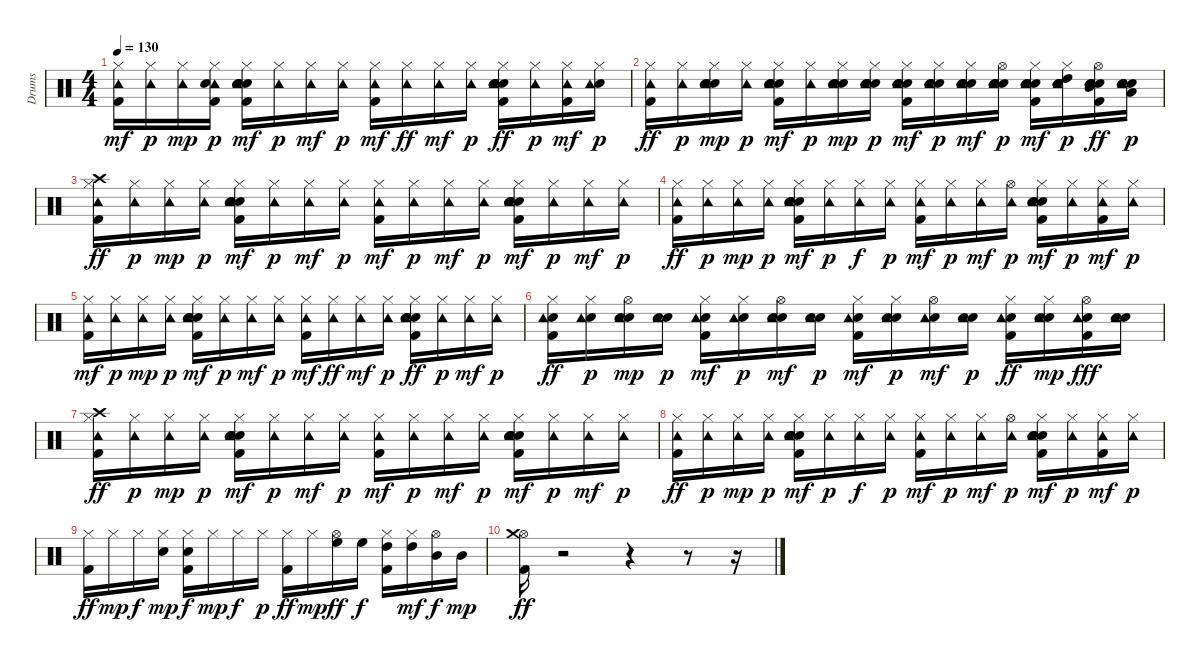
\track ("Drums  " "Drums  ") {instrument percussion}
\staff {score}
\articulation defaults
\ts (4 4)
\tempo 130
\clef neutral
\ks c
("Kick (hit) 2" "Hi-Hat (closed)" "Tambourine (hit)").16{dy mf} ("Hi-Hat (closed)" "Tambourine (hit)").16{dy p} ("Hi-Hat (closed)" "Tambourine (hit)").16{dy mp} ("Kick (hit) 2" "Hi-Hat (closed)" "Tambourine (hit)" "Snare (hit) 2").16{dy p} ("Kick (hit) 2" "Snare (hit) 2" "Snare (hit) 2" "Electric Snare (hit)" "Hi-Hat (closed)" "Tambourine (hit)").16{dy mf} ("Hi-Hat (closed)" "Tambourine (hit)").16{dy p} ("Hi-Hat (closed)" "Tambourine (hit)").16{dy mf} ("Hi-Hat (closed)" "Tambourine (hit)").16{dy p} ("Kick (hit) 2" "Hi-Hat (closed)" "Tambourine (hit)").16{dy mf} ("Hi-Hat (closed)" "Tambourine (hit)").16{dy ff} ("Hi-Hat (closed)" "Tambourine (hit)").16{dy mf} ("Hi-Hat (closed)" "Tambourine (hit)").16{dy p} ("Kick (hit) 2" "Snare (hit) 2" "Snare (hit) 2" "Electric Snare (hit)" "Hi-Hat (closed)" "Tambourine (hit)").16{dy ff} ("Hi-Hat (closed)" "Tambourine (hit)").16{dy p} ("Kick (hit) 2" "Hi-Hat (closed)" "Tambourine (hit)").16{dy mf} ("Snare (hit) 2" "Hi-Hat (closed)" "Tambourine (hit)").16{dy p} |
("Kick (hit) 2" "Hi-Hat (closed)" "Tambourine (hit)").16{dy ff} ("Hi-Hat (closed)" "Tambourine (hit)").16{dy p} ("Snare (hit) 2" "Snare (hit) 2" "Electric Snare (hit)" "Hi-Hat (closed)" "Tambourine (hit)").16{dy mp} ("Hi-Hat (closed)" "Tambourine (hit)").16{dy p} ("Kick (hit) 2" "Snare (hit) 2" "Snare (hit) 2" "Electric Snare (hit)" "Hi-Hat (closed)" "Tambourine (hit)").16{dy mf} ("Hi-Hat (closed)" "Tambourine (hit)").16{dy p} ("Snare (hit) 2" "Snare (hit) 2" "Electric Snare (hit)" "Hi-Hat (closed)" "Tambourine (hit)").16{dy mp} ("Snare (hit) 2" "Snare (hit) 2" "Electric Snare (hit)" "Hi-Hat (closed)" "Tambourine (hit)").16{dy p} ("Kick (hit) 2" "Snare (hit) 2" "Snare (hit) 2" "Electric Snare (hit)" "Hi-Hat (closed)" "Tambourine (hit)").16{dy mf} ("Snare (hit) 2" "Snare (hit) 2" "Electric Snare (hit)" "Hi-Hat (closed)" "Tambourine (hit)").16{dy p} ("Snare (hit) 2" "Snare (hit) 2" "Electric Snare (hit)" "Hi-Hat (closed)" "Tambourine (hit)").16{dy mf} ("Snare (hit) 2" "Snare (hit) 2" "Electric Snare (hit)" "Hi-Hat (open)" "Tambourine (hit)").16{dy p} ("Kick (hit) 2" "Snare (hit) 2" "Snare (hit) 2" "Electric Snare (hit)" "Hi-Hat (closed)" "Tambourine (hit)").16{dy mf} ("Snare (hit) 2" "Snare (hit) 2" "Electric Snare (hit)" "Hi-Hat (closed)" "High Tom (hit)" "Tambourine (hit)").16{dy p} ("Kick (hit) 2" "Snare (hit) 2" "Snare (hit) 2" "Electric Snare (hit)" "Hi-Hat (open)" "Mid Tom (hit)").16{dy ff} ("Snare (hit) 2" "Snare (hit) 2" "Electric Snare (hit)" "Low Floor Tom (hit)" "Tambourine (hit)").16{dy p} |
("Kick (hit) 2" "Hi-Hat (closed)" "Tambourine (hit)" "Crash high (hit)").16{dy ff} ("Hi-Hat (closed)" "Tambourine (hit)").16{dy p} ("Hi-Hat (closed)" "Tambourine (hit)").16{dy mp} ("Hi-Hat (closed)" "Tambourine (hit)").16{dy p} ("Kick (hit) 2" "Snare (hit) 2" "Snare (hit) 2" "Electric Snare (hit)" "Hi-Hat (closed)" "Tambourine (hit)").16{dy mf} ("Hi-Hat (closed)" "Tambourine (hit)").16{dy p} ("Hi-Hat (closed)" "Tambourine (hit)").16{dy mf} ("Hi-Hat (closed)" "Tambourine (hit)").16{dy p} ("Kick (hit) 2" "Hi-Hat (closed)" "Tambourine (hit)").16{dy mf} ("Hi-Hat (closed)" "Tambourine (hit)").16{dy p} ("Hi-Hat (closed)" "Tambourine (hit)").16{dy mf} ("Hi-Hat (closed)" "Tambourine (hit)").16{dy p} ("Kick (hit) 2" "Snare (hit) 2" "Snare (hit) 2" "Electric Snare (hit)" "Hi-Hat (closed)" "Tambourine (hit)").16{dy mf} ("Hi-Hat (closed)" "Tambourine (hit)").16{dy p} ("Hi-Hat (closed)" "Tambourine (hit)").16{dy mf} ("Hi-Hat (closed)" "Tambourine (hit)").16{dy p} |
("Kick (hit) 2" "Hi-Hat (closed)" "Tambourine (hit)").16{dy ff} ("Hi-Hat (closed)" "Tambourine (hit)").16{dy p} ("Hi-Hat (closed)" "Tambourine (hit)").16{dy mp} ("Hi-Hat (closed)" "Tambourine (hit)").16{dy p} ("Kick (hit) 2" "Snare (hit) 2" "Snare (hit) 2" "Electric Snare (hit)" "Hi-Hat (closed)" "Tambourine (hit)").16{dy mf} ("Hi-Hat (closed)" "Tambourine (hit)").16{dy p} ("Hi-Hat (closed)" "Tambourine (hit)").16{dy f} ("Hi-Hat (closed)" "Tambourine (hit)").16{dy p} ("Kick (hit) 2" "Hi-Hat (closed)" "Tambourine (hit)").16{dy mf} ("Hi-Hat (closed)" "Tambourine (hit)").16{dy p} ("Hi-Hat (closed)" "Tambourine (hit)").16{dy mf} ("Hi-Hat (open)" "Tambourine (hit)").16{dy p} ("Kick (hit) 2" "Snare (hit) 2" "Snare (hit) 2" "Electric Snare (hit)" "Hi-Hat (closed)" "Tambourine (hit)").16{dy mf} ("Hi-Hat (closed)" "Tambourine (hit)").16{dy p} ("Kick (hit) 2" "Hi-Hat (closed)" "Tambourine (hit)").16{dy mf} ("Hi-Hat (closed)" "Tambourine (hit)").16{dy p} |
("Kick (hit) 2" "Hi-Hat (closed)" "Tambourine (hit)").16{dy mf} ("Hi-Hat (closed)" "Tambourine (hit)").16{dy p} ("Hi-Hat (closed)" "Tambourine (hit)").16{dy mp} ("Hi-Hat (closed)" "Tambourine (hit)").16{dy p} ("Kick (hit) 2" "Snare (hit) 2" "Snare (hit) 2" "Electric Snare (hit)" "Hi-Hat (closed)" "Tambourine (hit)").16{dy mf} ("Hi-Hat (closed)" "Tambourine (hit)").16{dy p} ("Hi-Hat (closed)" "Tambourine (hit)").16{dy mf} ("Hi-Hat (closed)" "Tambourine (hit)").16{dy p} ("Kick (hit) 2" "Hi-Hat (closed)" "Tambourine (hit)").16{dy mf} ("Hi-Hat (closed)" "Tambourine (hit)").16{dy ff} ("Hi-Hat (closed)" "Tambourine (hit)").16{dy mf} ("Hi-Hat (closed)" "Tambourine (hit)").16{dy p} ("Kick (hit) 2" "Snare (hit) 2" "Snare (hit) 2" "Electric Snare (hit)" "Hi-Hat (closed)" "Tambourine (hit)").16{dy ff} ("Hi-Hat (closed)" "Tambourine (hit)").16{dy p} ("Hi-Hat (closed)" "Tambourine (hit)").16{dy mf} ("Hi-Hat (closed)" "Tambourine (hit)").16{dy p} |
("Kick (hit) 2" "Snare (hit) 2" "Hi-Hat (closed)" "Tambourine (hit)").16{dy ff} ("Snare (hit) 2" "Hi-Hat (closed)" "Tambourine (hit)").16{dy p} ("Snare (hit) 2" "Electric Snare (hit)" "Hi-Hat (open)" "Tambourine (hit)").16{dy mp} ("Snare (hit) 2" "Electric Snare (hit)" "Tambourine (hit)").16{dy p} ("Kick (hit) 2" "Snare (hit) 2" "Hi-Hat (closed)" "Tambourine (hit)").16{dy mf} ("Snare (hit) 2" "Hi-Hat (closed)" "Tambourine (hit)").16{dy p} ("Snare (hit) 2" "Electric Snare (hit)" "Hi-Hat (open)" "Tambourine (hit)").16{dy mf} ("Snare (hit) 2" "Electric Snare (hit)" "Tambourine (hit)").16{dy p} ("Kick (hit) 2" "Snare (hit) 2" "Hi-Hat (closed)" "Tambourine (hit)").16{dy mf} ("Snare (hit) 2" "Electric Snare (hit)" "Hi-Hat (closed)" "Tambourine (hit)").16{dy p} ("Snare (hit) 2" "Hi-Hat (open)" "Tambourine (hit)").16{dy mf} ("Snare (hit) 2" "Electric Snare (hit)" "Tambourine (hit)").16{dy p} ("Kick (hit) 2" "Snare (hit) 2" "Hi-Hat (closed)" "Tambourine (hit)").16{dy ff} ("Snare (hit) 2" "Electric Snare (hit)" "Hi-Hat (closed)" "Tambourine (hit)").16{dy mp} ("Kick (hit) 2" "Snare (hit) 2" "Hi-Hat (open)" "Tambourine (hit)").16{dy fff} ("Snare (hit) 2" "Electric Snare (hit)" "Tambourine (hit)").16 |
("Kick (hit) 2" "Hi-Hat (closed)" "Tambourine (hit)" "Crash high (hit)").16{dy ff} ("Hi-Hat (closed)" "Tambourine (hit)").16{dy p} ("Hi-Hat (closed)" "Tambourine (hit)").16{dy mp} ("Hi-Hat (closed)" "Tambourine (hit)").16{dy p} ("Kick (hit) 2" "Snare (hit) 2" "Snare (hit) 2" "Electric Snare (hit)" "Hi-Hat (closed)" "Tambourine (hit)").16{dy mf} ("Hi-Hat (closed)" "Tambourine (hit)").16{dy p} ("Hi-Hat (closed)" "Tambourine (hit)").16{dy mf} ("Hi-Hat (closed)" "Tambourine (hit)").16{dy p} ("Kick (hit) 2" "Hi-Hat (closed)" "Tambourine (hit)").16{dy mf} ("Hi-Hat (closed)" "Tambourine (hit)").16{dy p} ("Hi-Hat (closed)" "Tambourine (hit)").16{dy mf} ("Hi-Hat (closed)" "Tambourine (hit)").16{dy p} ("Kick (hit) 2" "Snare (hit) 2" "Snare (hit) 2" "Electric Snare (hit)" "Hi-Hat (closed)" "Tambourine (hit)").16{dy mf} ("Hi-Hat (closed)" "Tambourine (hit)").16{dy p} ("Hi-Hat (closed)" "Tambourine (hit)").16{dy mf} ("Hi-Hat (closed)" "Tambourine (hit)").16{dy p} |
("Kick (hit) 2" "Hi-Hat (closed)" "Tambourine (hit)").16{dy ff} ("Hi-Hat (closed)" "Tambourine (hit)").16{dy p} ("Hi-Hat (closed)" "Tambourine (hit)").16{dy mp} ("Hi-Hat (closed)" "Tambourine (hit)").16{dy p} ("Kick (hit) 2" "Snare (hit) 2" "Snare (hit) 2" "Electric Snare (hit)" "Hi-Hat (closed)" "Tambourine (hit)").16{dy mf} ("Hi-Hat (closed)" "Tambourine (hit)").16{dy p} ("Hi-Hat (closed)" "Tambourine (hit)").16{dy f} ("Hi-Hat (closed)" "Tambourine (hit)").16{dy p} ("Kick (hit) 2" "Hi-Hat (closed)" "Tambourine (hit)").16{dy mf} ("Hi-Hat (closed)" "Tambourine (hit)").16{dy p} ("Hi-Hat (closed)" "Tambourine (hit)").16{dy mf} ("Hi-Hat (open)" "Tambourine (hit)").16{dy p} ("Kick (hit) 2" "Snare (hit) 2" "Snare (hit) 2" "Electric Snare (hit)" "Hi-Hat (closed)" "Tambourine (hit)").16{dy mf} ("Hi-Hat (closed)" "Tambourine (hit)").16{dy p} ("Kick (hit) 2" "Hi-Hat (closed)" "Tambourine (hit)").16{dy mf} ("Hi-Hat (closed)" "Tambourine (hit)").16{dy p} |
("Kick (hit) 2" "Hi-Hat (closed)").16{dy ff} "Hi-Hat (closed)".16{dy mp} "Hi-Hat (closed)".16{dy f} ("Hi-Hat (closed)" "Snare (hit) 2").16{dy mp} ("Kick (hit) 2" "Snare (hit) 2" "Hi-Hat (closed)").16{dy f} "Hi-Hat (closed)".16{dy mp} "Hi-Hat (closed)".16{dy f} "Hi-Hat (closed)".16{dy p} ("Kick (hit) 2" "Hi-Hat (closed)").16{dy ff} "Hi-Hat (closed)".16{dy mp} ("Hi-Hat (open)" "High Floor Tom (hit)").16{dy ff} "High Floor Tom (hit)".16{dy f} ("Kick (hit) 2" "Hi-Hat (closed)" "High Tom (hit)").16 ("Hi-Hat (closed)" "High Tom (hit)").16{dy mf} ("Hi-Hat (open)" "Mid Tom (hit)").16{dy f} "Mid Tom (hit)".16{dy mp} |
("Kick (hit) 2" "Hi-Hat (open)" "Crash medium (hit)").16{dy ff} r.2 r.4 r.8 r.16
